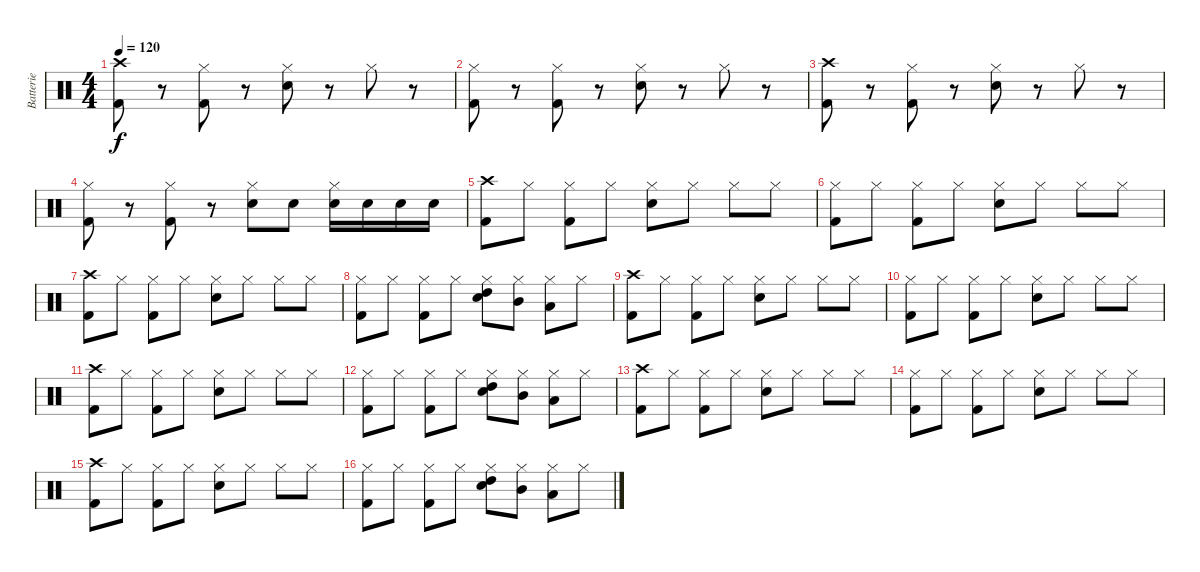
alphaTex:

\track ("Batterie" "Batterie") {instrument percussion}
\staff {score}
\articulation defaults
\ts (4 4)
\tempo 120
\clef neutral
\ks c
("Crash high (hit)" "Kick (hit) 2").8{dy f} r.8 ("Hi-Hat (closed)" "Kick (hit) 2").8 r.8 ("Hi-Hat (closed)" "Electric Snare (hit)").8 r.8 "Hi-Hat (closed)".8 r.8 |
("Hi-Hat (closed)" "Kick (hit) 2").8 r.8 ("Hi-Hat (closed)" "Kick (hit) 2").8 r.8 ("Hi-Hat (closed)" "Electric Snare (hit)").8 r.8 "Hi-Hat (closed)".8 r.8 |
("Crash high (hit)" "Kick (hit) 2").8 r.8 ("Hi-Hat (closed)" "Kick (hit) 2").8 r.8 ("Hi-Hat (closed)" "Electric Snare (hit)").8 r.8 "Hi-Hat (closed)".8 r.8 |
("Hi-Hat (closed)" "Kick (hit) 2").8 r.8 ("Hi-Hat (closed)" "Kick (hit) 2").8 r.8 ("Hi-Hat (closed)" "Electric Snare (hit)").8 "Electric Snare (hit)".8 ("Hi-Hat (closed)" "Electric Snare (hit)").16 "Electric Snare (hit)".16 "Electric Snare (hit)".16 "Electric Snare (hit)".16 |
("Crash high (hit)" "Kick (hit) 2").8 "Hi-Hat (closed)".8 ("Hi-Hat (closed)" "Kick (hit) 2").8 "Hi-Hat (closed)".8 ("Hi-Hat (closed)" "Electric Snare (hit)").8 "Hi-Hat (closed)".8 "Hi-Hat (closed)".8 "Hi-Hat (closed)".8 |
("Hi-Hat (closed)" "Kick (hit) 2").8 "Hi-Hat (closed)".8 ("Hi-Hat (closed)" "Kick (hit) 2").8 "Hi-Hat (closed)".8 ("Hi-Hat (closed)" "Electric Snare (hit)").8 "Hi-Hat (closed)".8 "Hi-Hat (closed)".8 "Hi-Hat (closed)".8 |
("Crash high (hit)" "Kick (hit) 2").8 "Hi-Hat (closed)".8 ("Hi-Hat (closed)" "Kick (hit) 2").8 "Hi-Hat (closed)".8 ("Hi-Hat (closed)" "Electric Snare (hit)").8 "Hi-Hat (closed)".8 "Hi-Hat (closed)".8 "Hi-Hat (closed)".8 |
("Hi-Hat (closed)" "Kick (hit) 2").8 "Hi-Hat (closed)".8 ("Hi-Hat (closed)" "Kick (hit) 2").8 "Hi-Hat (closed)".8 ("Hi-Hat (closed)" "Electric Snare (hit)" "High Tom (hit)").8 ("Hi-Hat (closed)" "Mid Tom (hit)").8 ("Hi-Hat (closed)" "Low Tom (hit)").8 "Hi-Hat (closed)".8 |
("Crash high (hit)" "Kick (hit) 2").8 "Hi-Hat (closed)".8 ("Hi-Hat (closed)" "Kick (hit) 2").8 "Hi-Hat (closed)".8 ("Hi-Hat (closed)" "Electric Snare (hit)").8 "Hi-Hat (closed)".8 "Hi-Hat (closed)".8 "Hi-Hat (closed)".8 |
("Hi-Hat (closed)" "Kick (hit) 2").8 "Hi-Hat (closed)".8 ("Hi-Hat (closed)" "Kick (hit) 2").8 "Hi-Hat (closed)".8 ("Hi-Hat (closed)" "Electric Snare (hit)").8 "Hi-Hat (closed)".8 "Hi-Hat (closed)".8 "Hi-Hat (closed)".8 |
("Crash high (hit)" "Kick (hit) 2").8 "Hi-Hat (closed)".8 ("Hi-Hat (closed)" "Kick (hit) 2").8 "Hi-Hat (closed)".8 ("Hi-Hat (closed)" "Electric Snare (hit)").8 "Hi-Hat (closed)".8 "Hi-Hat (closed)".8 "Hi-Hat (closed)".8 |
("Hi-Hat (closed)" "Kick (hit) 2").8 "Hi-Hat (closed)".8 ("Hi-Hat (closed)" "Kick (hit) 2").8 "Hi-Hat (closed)".8 ("Hi-Hat (closed)" "Electric Snare (hit)" "High Tom (hit)").8 ("Hi-Hat (closed)" "Mid Tom (hit)").8 ("Hi-Hat (closed)" "Low Tom (hit)").8 "Hi-Hat (closed)".8 |
("Crash high (hit)" "Kick (hit) 2").8 "Hi-Hat (closed)".8 ("Hi-Hat (closed)" "Kick (hit) 2").8 "Hi-Hat (closed)".8 ("Hi-Hat (closed)" "Electric Snare (hit)").8 "Hi-Hat (closed)".8 "Hi-Hat (closed)".8 "Hi-Hat (closed)".8 |
("Hi-Hat (closed)" "Kick (hit) 2").8 "Hi-Hat (closed)".8 ("Hi-Hat (closed)" "Kick (hit) 2").8 "Hi-Hat (closed)".8 ("Hi-Hat (closed)" "Electric Snare (hit)").8 "Hi-Hat (closed)".8 "Hi-Hat (closed)".8 "Hi-Hat (closed)".8 |
("Crash high (hit)" "Kick (hit) 2").8 "Hi-Hat (closed)".8 ("Hi-Hat (closed)" "Kick (hit) 2").8 "Hi-Hat (closed)".8 ("Hi-Hat (closed)" "Electric Snare (hit)").8 "Hi-Hat (closed)".8 "Hi-Hat (closed)".8 "Hi-Hat (closed)".8 |
("Hi-Hat (closed)" "Kick (hit) 2").8 "Hi-Hat (closed)".8 ("Hi-Hat (closed)" "Kick (hit) 2").8 "Hi-Hat (closed)".8 ("Hi-Hat (closed)" "Electric Snare (hit)" "High Tom (hit)").8 ("Hi-Hat (closed)" "Mid Tom (hit)").8 ("Hi-Hat (closed)" "Low Tom (hit)").8 "Hi-Hat (closed)".8
